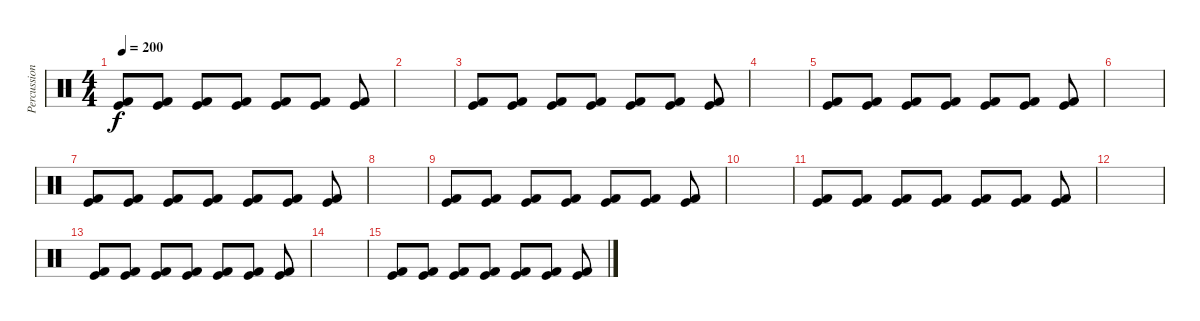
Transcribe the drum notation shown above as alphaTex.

\track ("Percussion" "Percussion") {instrument percussion}
\staff {score}
\articulation defaults
\ts (4 4)
\tempo 200
\clef neutral
\ks c
("Kick (hit) 2" "Kick (hit)").8{dy f} ("Kick (hit) 2" "Kick (hit)").8 ("Kick (hit) 2" "Kick (hit)").8 ("Kick (hit) 2" "Kick (hit)").8 ("Kick (hit) 2" "Kick (hit)").8 ("Kick (hit) 2" "Kick (hit)").8 ("Kick (hit) 2" "Kick (hit)").8 |
|
("Kick (hit) 2" "Kick (hit)").8 ("Kick (hit) 2" "Kick (hit)").8 ("Kick (hit) 2" "Kick (hit)").8 ("Kick (hit) 2" "Kick (hit)").8 ("Kick (hit) 2" "Kick (hit)").8 ("Kick (hit) 2" "Kick (hit)").8 ("Kick (hit) 2" "Kick (hit)").8 |
|
("Kick (hit) 2" "Kick (hit)").8 ("Kick (hit) 2" "Kick (hit)").8 ("Kick (hit) 2" "Kick (hit)").8 ("Kick (hit) 2" "Kick (hit)").8 ("Kick (hit) 2" "Kick (hit)").8 ("Kick (hit) 2" "Kick (hit)").8 ("Kick (hit) 2" "Kick (hit)").8 |
|
("Kick (hit) 2" "Kick (hit)").8 ("Kick (hit) 2" "Kick (hit)").8 ("Kick (hit) 2" "Kick (hit)").8 ("Kick (hit) 2" "Kick (hit)").8 ("Kick (hit) 2" "Kick (hit)").8 ("Kick (hit) 2" "Kick (hit)").8 ("Kick (hit) 2" "Kick (hit)").8 |
|
("Kick (hit) 2" "Kick (hit)").8 ("Kick (hit) 2" "Kick (hit)").8 ("Kick (hit) 2" "Kick (hit)").8 ("Kick (hit) 2" "Kick (hit)").8 ("Kick (hit) 2" "Kick (hit)").8 ("Kick (hit) 2" "Kick (hit)").8 ("Kick (hit) 2" "Kick (hit)").8 |
|
("Kick (hit) 2" "Kick (hit)").8 ("Kick (hit) 2" "Kick (hit)").8 ("Kick (hit) 2" "Kick (hit)").8 ("Kick (hit) 2" "Kick (hit)").8 ("Kick (hit) 2" "Kick (hit)").8 ("Kick (hit) 2" "Kick (hit)").8 ("Kick (hit) 2" "Kick (hit)").8 |
|
("Kick (hit) 2" "Kick (hit)").8 ("Kick (hit) 2" "Kick (hit)").8 ("Kick (hit) 2" "Kick (hit)").8 ("Kick (hit) 2" "Kick (hit)").8 ("Kick (hit) 2" "Kick (hit)").8 ("Kick (hit) 2" "Kick (hit)").8 ("Kick (hit) 2" "Kick (hit)").8 |
|
("Kick (hit) 2" "Kick (hit)").8 ("Kick (hit) 2" "Kick (hit)").8 ("Kick (hit) 2" "Kick (hit)").8 ("Kick (hit) 2" "Kick (hit)").8 ("Kick (hit) 2" "Kick (hit)").8 ("Kick (hit) 2" "Kick (hit)").8 ("Kick (hit) 2" "Kick (hit)").8
